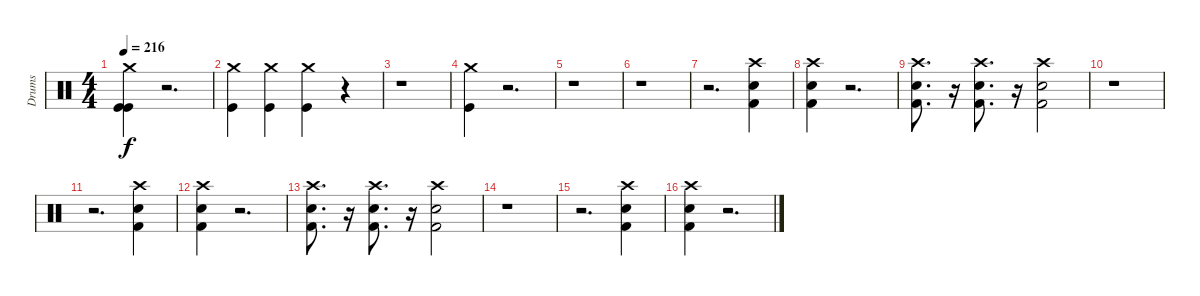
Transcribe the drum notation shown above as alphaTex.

\track ("Drums" "Drums") {instrument percussion}
\staff {score}
\articulation defaults
\ts (4 4)
\tempo 216
\clef neutral
\ks c
("Crash medium (hit)" "Kick (hit)" "Kick (hit)").4{dy f} r.2{d} |
("Crash medium (hit)" "Kick (hit)").4 ("Crash medium (hit)" "Kick (hit)").4 ("Crash medium (hit)" "Kick (hit)").4 r.4 |
r.1 |
("Crash medium (hit)" "Kick (hit)").4 r.2{d} |
r.1 |
r.1 |
r.2{d} ("Crash high (hit)" "Snare (hit) 2" "Kick (hit) 2").4 |
("Crash high (hit)" "Snare (hit) 2" "Kick (hit) 2").4 r.2{d} |
("Crash high (hit)" "Snare (hit) 2" "Kick (hit) 2").8{d} r.16 ("Crash high (hit)" "Snare (hit) 2" "Kick (hit) 2").8{d} r.16 ("Crash high (hit)" "Snare (hit) 2" "Kick (hit) 2").2 |
r.1 |
r.2{d} ("Crash high (hit)" "Snare (hit) 2" "Kick (hit) 2").4 |
("Crash high (hit)" "Snare (hit) 2" "Kick (hit) 2").4 r.2{d} |
("Crash high (hit)" "Snare (hit) 2" "Kick (hit) 2").8{d} r.16 ("Crash high (hit)" "Snare (hit) 2" "Kick (hit) 2").8{d} r.16 ("Crash high (hit)" "Snare (hit) 2" "Kick (hit) 2").2 |
r.1 |
r.2{d} ("Crash high (hit)" "Snare (hit) 2" "Kick (hit) 2").4 |
("Crash high (hit)" "Snare (hit) 2" "Kick (hit) 2").4 r.2{d}
